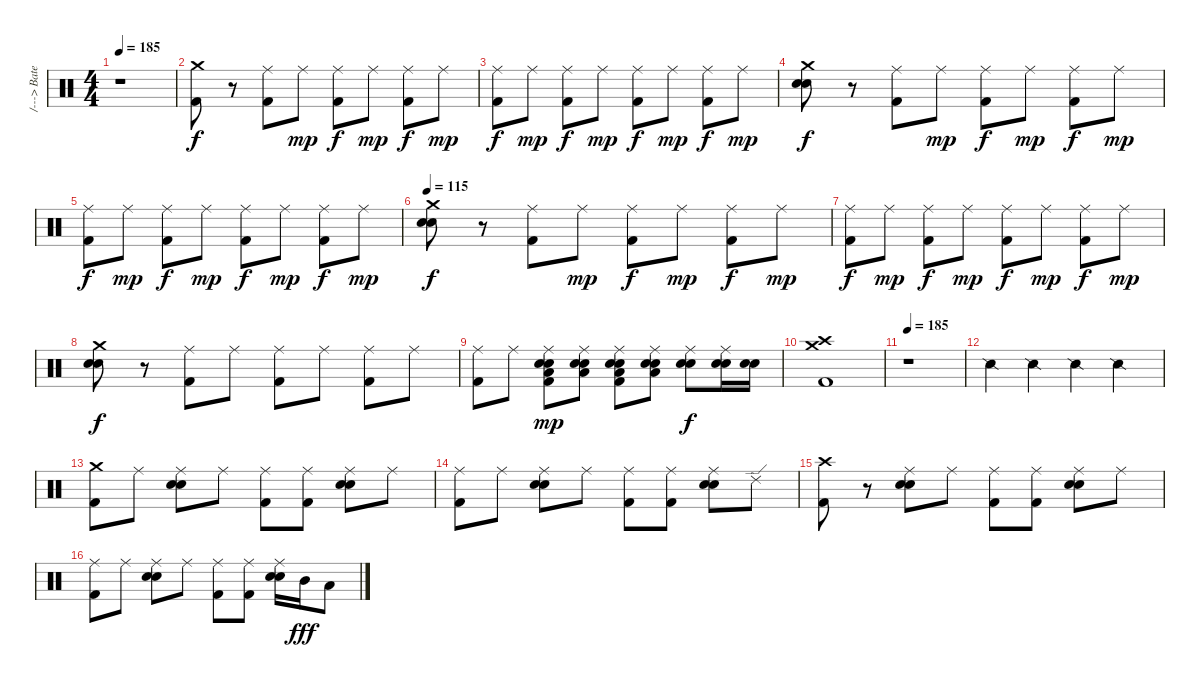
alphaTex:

\track ("/---> Bateria <----/" "/---> Bate") {instrument percussion}
\staff {score}
\articulation defaults
\ts (4 4)
\tempo 185
\tempo 115
\tempo 185
\clef neutral
\ks c
r.1{dy f} |
("Crash medium (hit)" "Kick (hit) 2").8 r.8 ("Ride (middle)" "Kick (hit) 2").8 "Ride (middle)".8{dy mp} ("Ride (middle)" "Kick (hit) 2").8{dy f} "Ride (middle)".8{dy mp} ("Ride (middle)" "Kick (hit) 2").8{dy f} "Ride (middle)".8{dy mp} |
("Ride (middle)" "Kick (hit) 2").8{dy f} "Ride (middle)".8{dy mp} ("Ride (middle)" "Kick (hit) 2").8{dy f} "Ride (middle)".8{dy mp} ("Ride (middle)" "Kick (hit) 2").8{dy f} "Ride (middle)".8{dy mp} ("Ride (middle)" "Kick (hit) 2").8{dy f} "Ride (middle)".8{dy mp} |
("Crash medium (hit)" "Snare (hit) 2" "Electric Snare (hit)").8{dy f} r.8 ("Ride (middle)" "Kick (hit) 2").8 "Ride (middle)".8{dy mp} ("Ride (middle)" "Kick (hit) 2").8{dy f} "Ride (middle)".8{dy mp} ("Ride (middle)" "Kick (hit) 2").8{dy f} "Ride (middle)".8{dy mp} |
("Ride (middle)" "Kick (hit) 2").8{dy f} "Ride (middle)".8{dy mp} ("Ride (middle)" "Kick (hit) 2").8{dy f} "Ride (middle)".8{dy mp} ("Ride (middle)" "Kick (hit) 2").8{dy f} "Ride (middle)".8{dy mp} ("Ride (middle)" "Kick (hit) 2").8{dy f} "Ride (middle)".8{dy mp} |
\tempo 115
("Crash medium (hit)" "Snare (hit) 2" "Electric Snare (hit)").8{dy f} r.8 ("Ride (middle)" "Kick (hit) 2").8 "Ride (middle)".8{dy mp} ("Ride (middle)" "Kick (hit) 2").8{dy f} "Ride (middle)".8{dy mp} ("Ride (middle)" "Kick (hit) 2").8{dy f} "Ride (middle)".8{dy mp} |
("Ride (middle)" "Kick (hit) 2").8{dy f} "Ride (middle)".8{dy mp} ("Ride (middle)" "Kick (hit) 2").8{dy f} "Ride (middle)".8{dy mp} ("Ride (middle)" "Kick (hit) 2").8{dy f} "Ride (middle)".8{dy mp} ("Ride (middle)" "Kick (hit) 2").8{dy f} "Ride (middle)".8{dy mp} |
("Crash medium (hit)" "Snare (hit) 2" "Electric Snare (hit)").8{dy f} r.8 ("Ride (middle)" "Kick (hit) 2").8 "Ride (middle)".8 ("Ride (middle)" "Kick (hit) 2").8 "Ride (middle)".8 ("Ride (middle)" "Kick (hit) 2").8 "Ride (middle)".8 |
("Ride (middle)" "Kick (hit) 2").8 "Ride (middle)".8 ("Ride (middle)" "Low Tom (hit)" "Snare (hit) 2" "Electric Snare (hit)" "Kick (hit) 2").8{dy mp} ("Ride (middle)" "Low Tom (hit)" "Snare (hit) 2" "Electric Snare (hit)").8 ("Ride (middle)" "Low Tom (hit)" "Snare (hit) 2" "Electric Snare (hit)" "Kick (hit) 2").8 ("Ride (middle)" "Low Tom (hit)" "Snare (hit) 2" "Electric Snare (hit)").8 ("Ride (middle)" "Snare (hit) 2" "Electric Snare (hit)").8{dy f} ("Ride (middle)" "Snare (hit) 2" "Electric Snare (hit)").16 ("Snare (hit) 2" "Electric Snare (hit)").16 |
("Crash medium (hit)" "Crash high (hit)" "Kick (hit) 2").1 |
\tempo 185
r.1 |
"Snare (side stick) 2".4 "Snare (side stick) 2".4 "Snare (side stick) 2".4 "Snare (side stick) 2".4 |
("Crash medium (hit)" "Kick (hit) 2").8 "Ride (middle)".8 ("Ride (middle)" "Snare (hit) 2" "Electric Snare (hit)").8 "Ride (middle)".8 ("Ride (middle)" "Kick (hit) 2").8 ("Ride (middle)" "Kick (hit) 2").8 ("Ride (middle)" "Snare (hit) 2" "Electric Snare (hit)").8 "Ride (middle)".8 |
("Ride (middle)" "Kick (hit) 2").8 "Ride (middle)".8 ("Ride (middle)" "Snare (hit) 2" "Electric Snare (hit)").8 "Ride (middle)".8 ("Ride (middle)" "Kick (hit) 2").8 ("Ride (middle)" "Kick (hit) 2").8 ("Ride (middle)" "Snare (hit) 2" "Electric Snare (hit)").8 "Ride (edge) 2".8 |
("Crash high (hit)" "Kick (hit) 2").8 r.8 ("Ride (middle)" "Snare (hit) 2" "Electric Snare (hit)").8 "Ride (middle)".8 ("Ride (middle)" "Kick (hit) 2").8 ("Ride (middle)" "Kick (hit) 2").8 ("Ride (middle)" "Snare (hit) 2" "Electric Snare (hit)").8 "Ride (middle)".8 |
("Ride (middle)" "Kick (hit) 2").8 "Ride (middle)".8 ("Ride (middle)" "Snare (hit) 2" "Electric Snare (hit)").8 "Ride (middle)".8 ("Ride (middle)" "Kick (hit) 2").8 ("Ride (middle)" "Kick (hit) 2").8 ("Ride (middle)" "Snare (hit) 2" "Electric Snare (hit)").16 "Mid Tom (hit)".16{dy fff} "Low Tom (hit)".8
